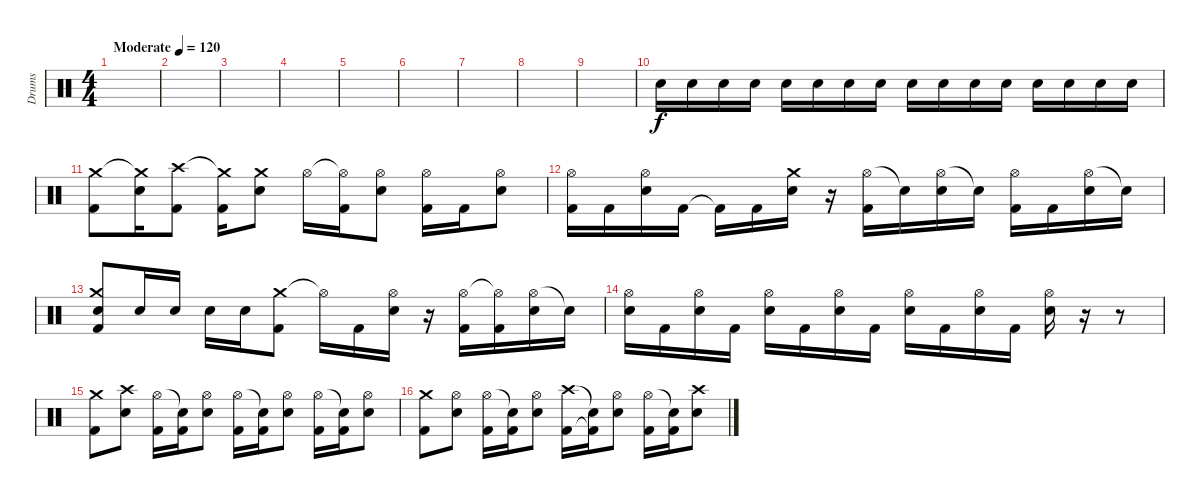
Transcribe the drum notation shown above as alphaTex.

\track ("Drums" "Drums") {instrument percussion}
\staff {score}
\articulation defaults
\ts (4 4)
\tempo (120 "Moderate")
\clef neutral
\ks c
|
|
|
|
|
|
|
|
|
"Electric Snare (hit)".16 "Electric Snare (hit)".16 "Electric Snare (hit)".16 "Electric Snare (hit)".16 "Electric Snare (hit)".16 "Electric Snare (hit)".16 "Electric Snare (hit)".16 "Electric Snare (hit)".16 "Electric Snare (hit)".16 "Electric Snare (hit)".16 "Electric Snare (hit)".16 "Electric Snare (hit)".16 "Electric Snare (hit)".16 "Electric Snare (hit)".16 "Electric Snare (hit)".16 "Electric Snare (hit)".16 |
("Crash medium (hit)" "Kick (hit) 2").8 ("Crash medium (hit)"{t} "Electric Snare (hit)").16 ("Crash high (hit)" "Kick (hit) 2").8 ("Crash medium (hit)"{t} "Kick (hit) 2").16 ("Crash medium (hit)" "Electric Snare (hit)").8 "Hi-Hat (open)".16 ("Hi-Hat (open)"{t} "Kick (hit) 2").16 ("Hi-Hat (open)" "Electric Snare (hit)").8 ("Hi-Hat (open)" "Kick (hit) 2").16 "Kick (hit) 2".16 ("Hi-Hat (open)" "Electric Snare (hit)").8 |
("Hi-Hat (open)" "Kick (hit) 2").16 "Kick (hit) 2".16 ("Hi-Hat (open)" "Electric Snare (hit)").16 "Kick (hit) 2".16 "Kick (hit) 2"{t}.16 "Kick (hit) 2".16 ("Crash medium (hit)" "Electric Snare (hit)").16 r.16 ("Hi-Hat (open)" "Kick (hit) 2").16 "Snare (hit)"{t}.16 ("Hi-Hat (open)" "Electric Snare (hit)").16 "Snare (hit)"{t}.16 ("Hi-Hat (open)" "Kick (hit) 2").16 "Kick (hit) 2".16 ("Hi-Hat (open)" "Electric Snare (hit)").16 "Snare (hit)"{t}.16 |
("Crash medium (hit)" "Electric Snare (hit)" "Kick (hit) 2").8 "Electric Snare (hit)".16 "Electric Snare (hit)".16 "Electric Snare (hit)".16 "Electric Snare (hit)".16 ("Crash medium (hit)" "Kick (hit) 2").8 "Hi-Hat (open)"{t}.16 "Kick (hit) 2".16 ("Hi-Hat (open)" "Electric Snare (hit)").16 r.16 ("Hi-Hat (open)" "Kick (hit) 2").16 ("Hi-Hat (open)"{t} "Kick (hit) 2").16 ("Hi-Hat (open)" "Electric Snare (hit)").16 "Snare (hit)"{t}.16 |
("Electric Snare (hit)" "Hi-Hat (open)").16 "Kick (hit) 2".16 ("Electric Snare (hit)" "Hi-Hat (open)").16 "Kick (hit) 2".16 ("Electric Snare (hit)" "Hi-Hat (open)").16 "Kick (hit) 2".16 ("Electric Snare (hit)" "Hi-Hat (open)").16 "Kick (hit) 2".16 ("Electric Snare (hit)" "Hi-Hat (open)").16 "Kick (hit) 2".16 ("Electric Snare (hit)" "Hi-Hat (open)").16 "Kick (hit) 2".16 ("Electric Snare (hit)" "Hi-Hat (open)").16 r.16 r.8 |
("Crash medium (hit)" "Kick (hit) 2").8 ("Crash high (hit)" "Electric Snare (hit)").8 ("Hi-Hat (open)" "Kick (hit) 2").16 ("Snare (hit)"{t} "Kick (hit) 2").16 ("Hi-Hat (open)" "Electric Snare (hit)").8 ("Hi-Hat (open)" "Kick (hit) 2").16 ("Snare (hit)"{t} "Kick (hit) 2").16 ("Hi-Hat (open)" "Electric Snare (hit)").8 ("Hi-Hat (open)" "Kick (hit) 2").16 ("Snare (hit)"{t} "Kick (hit) 2").16 ("Hi-Hat (open)" "Electric Snare (hit)").8 |
("Crash medium (hit)" "Kick (hit) 2").8 ("Hi-Hat (open)" "Electric Snare (hit)").8 ("Hi-Hat (open)" "Kick (hit) 2").16 ("Snare (hit)"{t} "Kick (hit) 2").16 ("Hi-Hat (open)" "Electric Snare (hit)").8 ("Crash high (hit)" "Kick (hit) 2").16 ("Snare (hit)"{t} "Kick (hit) 2"{t}).16 ("Hi-Hat (open)" "Electric Snare (hit)").8 ("Hi-Hat (open)" "Kick (hit) 2").16 ("Snare (hit)"{t} "Kick (hit) 2").16 ("Crash high (hit)" "Electric Snare (hit)").8
